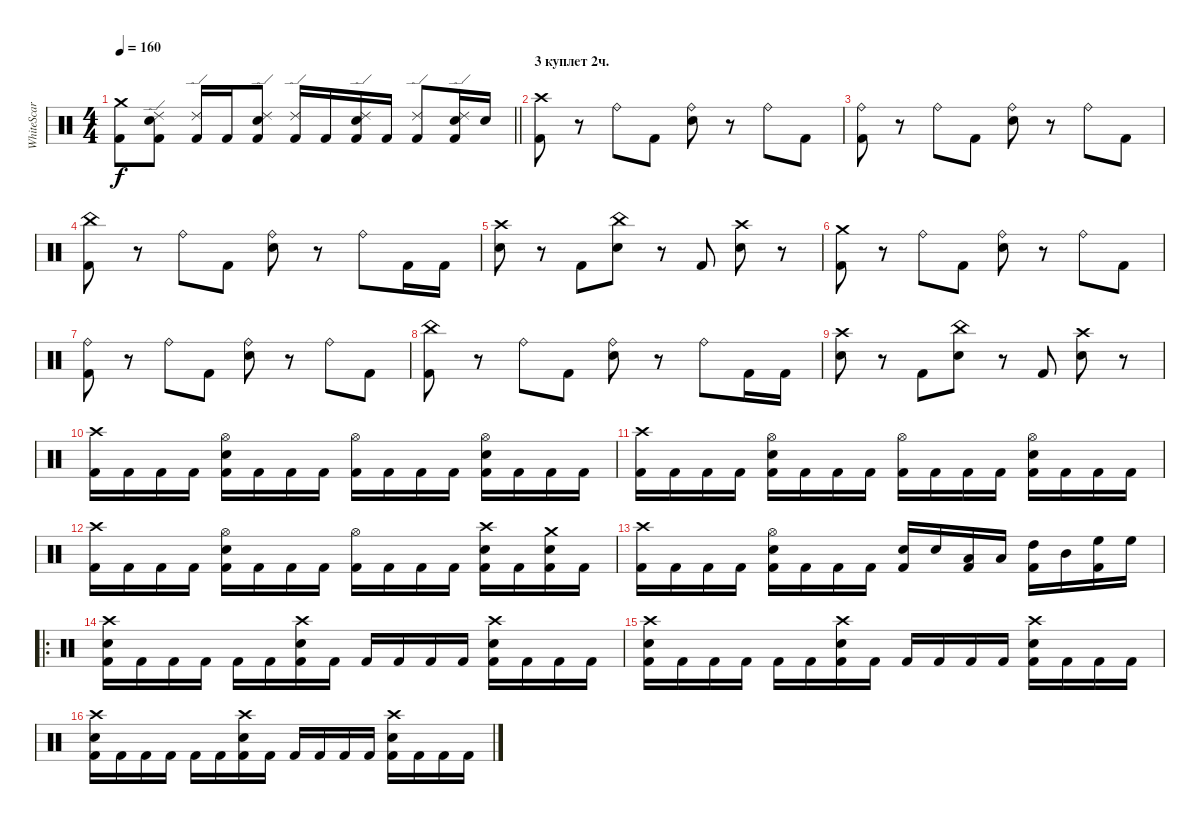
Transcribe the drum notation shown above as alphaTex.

\track ("WhiteScar" "WhiteScar") {instrument percussion}
\staff {score}
\articulation defaults
\ts (4 4)
\tempo 160
\clef neutral
\barLineRight lightlight
\ks c
("Crash medium (hit)" "Kick (hit) 2").8{dy f} ("Snare (hit) 2" "Ride (edge) 2" "Kick (hit) 2").8 ("Ride (edge) 2" "Kick (hit) 2").16 "Kick (hit) 2".16 ("Snare (hit) 2" "Ride (edge) 2" "Kick (hit) 2").8 ("Ride (edge) 2" "Kick (hit) 2").16 "Kick (hit) 2".16 ("Snare (hit) 2" "Ride (edge) 2" "Kick (hit) 2").16 "Kick (hit) 2".16 ("Ride (edge) 2" "Kick (hit) 2").8 ("Snare (hit) 2" "Ride (edge) 2" "Kick (hit) 2").16 "Snare (hit) 2".16 |
\section ("" "3 куплет 2ч.")
("Crash high (hit)" "Kick (hit) 2").8 r.8 "Ride (bell)".8 "Kick (hit) 2".8 ("Ride (bell)" "Snare (hit) 2").8 r.8 "Ride (bell)".8 "Kick (hit) 2".8 |
("Ride (bell)" "Kick (hit) 2").8 r.8 "Ride (bell)".8 "Kick (hit) 2".8 ("Ride (bell)" "Snare (hit) 2").8 r.8 "Ride (bell)".8 "Kick (hit) 2".8 |
("China (hit)" "Kick (hit) 2").8 r.8 "Ride (bell)".8 "Kick (hit) 2".8 ("Ride (bell)" "Snare (hit) 2").8 r.8 "Ride (bell)".8 "Kick (hit) 2".16 "Kick (hit) 2".16 |
("Crash high (hit)" "Snare (hit) 2").8 r.8 "Kick (hit) 2".8 ("China (hit)" "Snare (hit) 2").8 r.8 "Kick (hit) 2".8 ("Crash high (hit)" "Snare (hit) 2").8 r.8 |
("Crash medium (hit)" "Kick (hit) 2").8 r.8 "Ride (bell)".8 "Kick (hit) 2".8 ("Ride (bell)" "Snare (hit) 2").8 r.8 "Ride (bell)".8 "Kick (hit) 2".8 |
("Ride (bell)" "Kick (hit) 2").8 r.8 "Ride (bell)".8 "Kick (hit) 2".8 ("Ride (bell)" "Snare (hit) 2").8 r.8 "Ride (bell)".8 "Kick (hit) 2".8 |
("China (hit)" "Kick (hit) 2").8 r.8 "Ride (bell)".8 "Kick (hit) 2".8 ("Ride (bell)" "Snare (hit) 2").8 r.8 "Ride (bell)".8 "Kick (hit) 2".16 "Kick (hit) 2".16 |
("Crash high (hit)" "Snare (hit) 2").8 r.8 "Kick (hit) 2".8 ("China (hit)" "Snare (hit) 2").8 r.8 "Kick (hit) 2".8 ("Crash high (hit)" "Snare (hit) 2").8 r.8 |
("Crash high (hit)" "Kick (hit) 2").16 "Kick (hit) 2".16 "Kick (hit) 2".16 "Kick (hit) 2".16 ("Hi-Hat (open)" "Snare (hit) 2" "Kick (hit) 2").16 "Kick (hit) 2".16 "Kick (hit) 2".16 "Kick (hit) 2".16 ("Hi-Hat (open)" "Kick (hit) 2").16 "Kick (hit) 2".16 "Kick (hit) 2".16 "Kick (hit) 2".16 ("Hi-Hat (open)" "Snare (hit) 2" "Kick (hit) 2").16 "Kick (hit) 2".16 "Kick (hit) 2".16 "Kick (hit) 2".16 |
("Crash high (hit)" "Kick (hit) 2").16 "Kick (hit) 2".16 "Kick (hit) 2".16 "Kick (hit) 2".16 ("Hi-Hat (open)" "Snare (hit) 2" "Kick (hit) 2").16 "Kick (hit) 2".16 "Kick (hit) 2".16 "Kick (hit) 2".16 ("Hi-Hat (open)" "Kick (hit) 2").16 "Kick (hit) 2".16 "Kick (hit) 2".16 "Kick (hit) 2".16 ("Hi-Hat (open)" "Snare (hit) 2" "Kick (hit) 2").16 "Kick (hit) 2".16 "Kick (hit) 2".16 "Kick (hit) 2".16 |
("Crash high (hit)" "Kick (hit) 2").16 "Kick (hit) 2".16 "Kick (hit) 2".16 "Kick (hit) 2".16 ("Hi-Hat (open)" "Snare (hit) 2" "Kick (hit) 2").16 "Kick (hit) 2".16 "Kick (hit) 2".16 "Kick (hit) 2".16 ("Hi-Hat (open)" "Kick (hit) 2").16 "Kick (hit) 2".16 "Kick (hit) 2".16 "Kick (hit) 2".16 ("Crash high (hit)" "Snare (hit) 2" "Kick (hit) 2").16 "Kick (hit) 2".16 ("Crash medium (hit)" "Snare (hit) 2" "Kick (hit) 2").16 "Kick (hit) 2".16 |
("Crash high (hit)" "Kick (hit) 2").16 "Kick (hit) 2".16 "Kick (hit) 2".16 "Kick (hit) 2".16 ("Hi-Hat (open)" "Snare (hit) 2" "Kick (hit) 2").16 "Kick (hit) 2".16 "Kick (hit) 2".16 "Kick (hit) 2".16 ("Snare (hit) 2" "Kick (hit) 2").16 "Snare (hit) 2".16 ("Low Tom (hit)" "Kick (hit) 2").16 "Low Tom (hit)".16 ("High Tom (hit)" "Kick (hit) 2").16 "Mid Tom (hit)".16 ("High Floor Tom (hit)" "Kick (hit) 2").16 "High Floor Tom (hit)".16 |
\ro
("Crash high (hit)" "Snare (hit) 2" "Kick (hit) 2").16 "Kick (hit) 2".16 "Kick (hit) 2".16 "Kick (hit) 2".16 "Kick (hit) 2".16 "Kick (hit) 2".16 ("Crash high (hit)" "Snare (hit) 2" "Kick (hit) 2").16 "Kick (hit) 2".16 "Kick (hit) 2".16 "Kick (hit) 2".16 "Kick (hit) 2".16 "Kick (hit) 2".16 ("Crash high (hit)" "Snare (hit) 2" "Kick (hit) 2").16 "Kick (hit) 2".16 "Kick (hit) 2".16 "Kick (hit) 2".16 |
("Crash high (hit)" "Snare (hit) 2" "Kick (hit) 2").16 "Kick (hit) 2".16 "Kick (hit) 2".16 "Kick (hit) 2".16 "Kick (hit) 2".16 "Kick (hit) 2".16 ("Crash high (hit)" "Snare (hit) 2" "Kick (hit) 2").16 "Kick (hit) 2".16 "Kick (hit) 2".16 "Kick (hit) 2".16 "Kick (hit) 2".16 "Kick (hit) 2".16 ("Crash high (hit)" "Snare (hit) 2" "Kick (hit) 2").16 "Kick (hit) 2".16 "Kick (hit) 2".16 "Kick (hit) 2".16 |
("Crash high (hit)" "Snare (hit) 2" "Kick (hit) 2").16 "Kick (hit) 2".16 "Kick (hit) 2".16 "Kick (hit) 2".16 "Kick (hit) 2".16 "Kick (hit) 2".16 ("Crash high (hit)" "Snare (hit) 2" "Kick (hit) 2").16 "Kick (hit) 2".16 "Kick (hit) 2".16 "Kick (hit) 2".16 "Kick (hit) 2".16 "Kick (hit) 2".16 ("Crash high (hit)" "Snare (hit) 2" "Kick (hit) 2").16 "Kick (hit) 2".16 "Kick (hit) 2".16 "Kick (hit) 2".16
